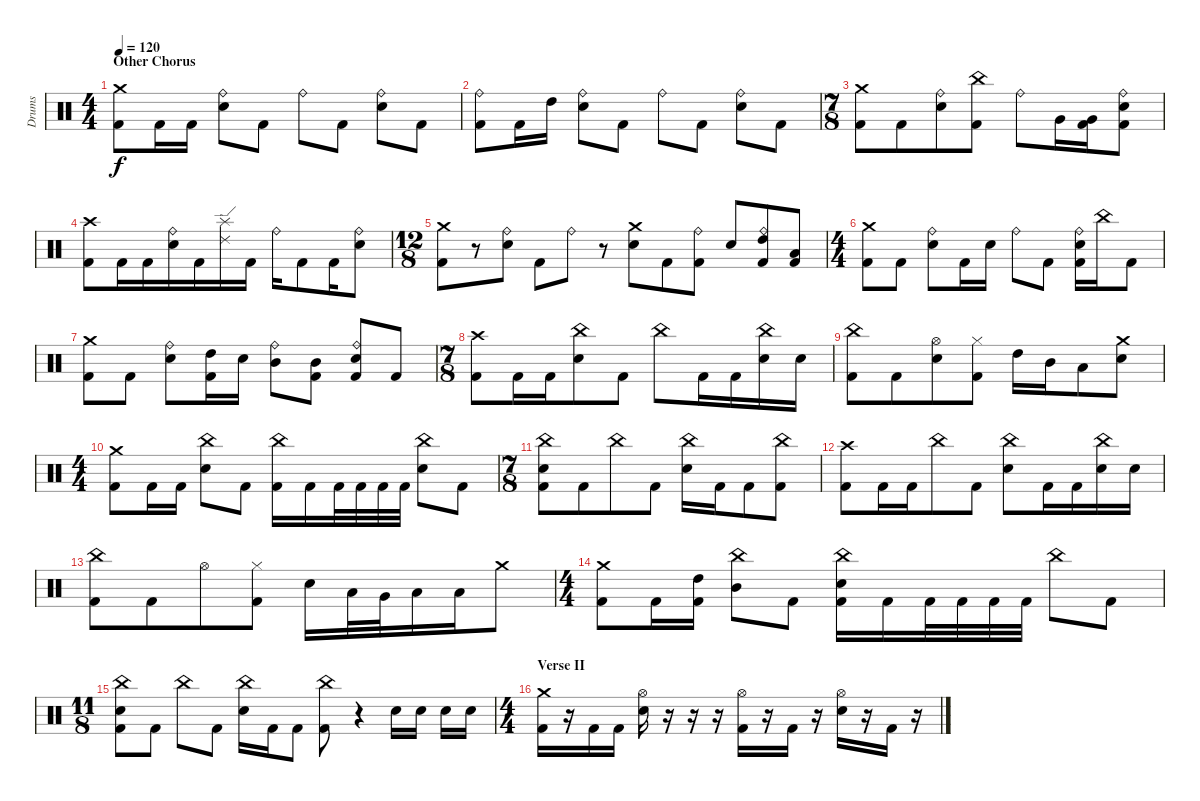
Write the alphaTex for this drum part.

\track ("Drums" "Drums") {instrument percussion}
\staff {score}
\articulation defaults
\ts (4 4)
\section ("" "Other Chorus")
\tempo 120
\clef neutral
\ks c
("Crash medium (hit)" "Kick (hit) 2").8{dy f volume 12} "Kick (hit) 2".16 "Kick (hit) 2".16 ("Ride (bell)" "Electric Snare (hit)").8 "Kick (hit) 2".8 "Ride (bell)".8 "Kick (hit) 2".8 ("Ride (bell)" "Electric Snare (hit)").8 "Kick (hit) 2".8 |
("Ride (bell)" "Kick (hit) 2").8 "Kick (hit) 2".16 "High Tom (hit)".16 ("Ride (bell)" "Electric Snare (hit)").8 "Kick (hit) 2".8 "Ride (bell)".8 "Kick (hit) 2".8 ("Ride (bell)" "Electric Snare (hit)").8 "Kick (hit) 2".8 |
\ts (7 8)
("Crash medium (hit)" "Kick (hit) 2").8 "Kick (hit) 2".8 ("Ride (bell)" "Electric Snare (hit)").8 ("China (hit)" "Kick (hit) 2").8 "Ride (bell)".8 "Very Low Tom (hit)".16 ("Very Low Tom (hit)" "Kick (hit) 2").16 ("Ride (bell)" "Electric Snare (hit)" "Kick (hit) 2").8 |
("Crash high (hit)" "Kick (hit) 2").8 "Kick (hit) 2".16 "Kick (hit) 2".16 ("Ride (bell)" "Electric Snare (hit)").16 "Kick (hit) 2".16 ("Ride (edge) 2" "Splash (hit)").16 "Kick (hit) 2".16 "Ride (bell)".16 "Kick (hit) 2".8 "Kick (hit) 2".16 ("Ride (bell)" "Electric Snare (hit)").8 |
\ts (12 8)
("Crash medium (hit)" "Kick (hit) 2").8 r.8 ("Ride (bell)" "Electric Snare (hit)").8 "Kick (hit) 2".8 "Ride (bell)".8 r.8 ("Crash medium (hit)" "Electric Snare (hit)").8 "Kick (hit) 2".8 ("Ride (bell)" "Kick (hit) 2").8 "Electric Snare (hit)".8 ("Ride (bell)" "High Tom (hit)" "Kick (hit) 2").8 ("Low Tom (hit)" "Kick (hit) 2").8 |
\ts (4 4)
("Crash medium (hit)" "Kick (hit) 2").8 "Kick (hit) 2".8 ("Ride (bell)" "Electric Snare (hit)").8 "Kick (hit) 2".16 "Electric Snare (hit)".16 "Ride (bell)".8 "Kick (hit) 2".8 ("Ride (bell)" "Electric Snare (hit)" "Kick (hit) 2").16 "China (hit)".16 "Kick (hit) 2".8 |
("Crash medium (hit)" "Kick (hit) 2").8 "Kick (hit) 2".8 ("Ride (bell)" "Electric Snare (hit)").8 ("High Tom (hit)" "Kick (hit) 2").16 "Electric Snare (hit)".16 ("Ride (bell)" "Mid Tom (hit)").8 ("Mid Tom (hit)" "Kick (hit) 2").8 ("Ride (bell)" "Electric Snare (hit)" "Kick (hit) 2").8 "Kick (hit) 2".8 |
\ts (7 8)
("Crash high (hit)" "Kick (hit) 2").8 "Kick (hit) 2".16 "Kick (hit) 2".16 ("China (hit)" "Electric Snare (hit)").8 "Kick (hit) 2".8 "China (hit)".8 "Kick (hit) 2".16 "Kick (hit) 2".16 ("China (hit)" "Electric Snare (hit)").16 "Electric Snare (hit)".16 |
("China (hit)" "Kick (hit) 2").8 "Kick (hit) 2".8 ("Hi-Hat (open)" "Electric Snare (hit)").8 ("Hi-Hat (closed)" "Kick (hit) 2").8 "High Tom (hit)".16 "Mid Tom (hit)".16 "Low Tom (hit)".8 ("Crash medium (hit)" "Electric Snare (hit)").8 |
\ts (4 4)
("Crash medium (hit)" "Kick (hit) 2").8 "Kick (hit) 2".16 "Kick (hit) 2".16 ("China (hit)" "Electric Snare (hit)").8 "Kick (hit) 2".8 ("China (hit)" "Kick (hit) 2").16 "Kick (hit) 2".16 "Kick (hit) 2".32 "Kick (hit) 2".32 "Kick (hit) 2".32 "Kick (hit) 2".32 ("China (hit)" "Electric Snare (hit)").8 "Kick (hit) 2".8 |
\ts (7 8)
("China (hit)" "Electric Snare (hit)" "Kick (hit) 2").8 "Kick (hit) 2".8 "China (hit)".8 "Kick (hit) 2".8 ("China (hit)" "Electric Snare (hit)").16 "Kick (hit) 2".16 "Kick (hit) 2".8 ("China (hit)" "Kick (hit) 2").8 |
("Crash high (hit)" "Kick (hit) 2").8 "Kick (hit) 2".16 "Kick (hit) 2".16 "China (hit)".8 "Kick (hit) 2".8 ("China (hit)" "Electric Snare (hit)").8 "Kick (hit) 2".16 "Kick (hit) 2".16 ("China (hit)" "Electric Snare (hit)").16 "Electric Snare (hit)".16 |
("China (hit)" "Kick (hit) 2").8 "Kick (hit) 2".8 "Hi-Hat (open)".8 ("Hi-Hat (closed)" "Kick (hit) 2").8 "Electric Snare (hit)".16 "Low Tom (hit)".32 "Very Low Tom (hit)".32 "Low Floor Tom (hit)".16 "Low Floor Tom (hit)".16 "Crash medium (hit)".8 |
\ts (4 4)
("Crash medium (hit)" "Kick (hit) 2").8 "Kick (hit) 2".16 ("High Tom (hit)" "Kick (hit) 2").16 ("China (hit)" "Mid Tom (hit)").8 "Kick (hit) 2".8 ("China (hit)" "Electric Snare (hit)" "Kick (hit) 2").16 "Kick (hit) 2".16 "Kick (hit) 2".32 "Kick (hit) 2".32 "Kick (hit) 2".32 "Kick (hit) 2".32 "China (hit)".8 "Kick (hit) 2".8 |
\ts (11 8)
("China (hit)" "Electric Snare (hit)" "Kick (hit) 2").8 "Kick (hit) 2".8 "China (hit)".8 "Kick (hit) 2".8 ("China (hit)" "Electric Snare (hit)").16 "Kick (hit) 2".16 "Kick (hit) 2".8 ("China (hit)" "Kick (hit) 2").8 r.4 "Electric Snare (hit)".16 "Electric Snare (hit)".16 "Electric Snare (hit)".16 "Electric Snare (hit)".16 |
\ts (4 4)
\section ("" "Verse II")
("Crash medium (hit)" "Kick (hit) 2").16 r.16 "Kick (hit) 2".16 "Kick (hit) 2".16 ("Hi-Hat (open)" "Electric Snare (hit)").16 r.16 r.16 r.16 ("Hi-Hat (open)" "Kick (hit) 2").16 r.16 "Kick (hit) 2".16 r.16 ("Hi-Hat (open)" "Electric Snare (hit)").16 r.16 "Kick (hit) 2".16 r.16
